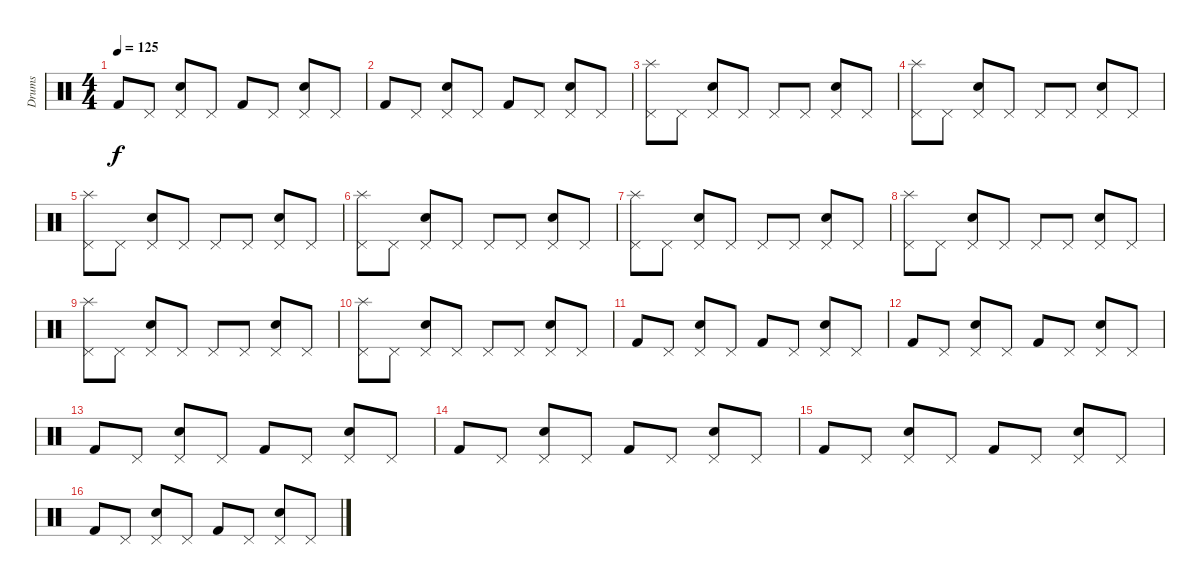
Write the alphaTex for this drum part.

\track ("Drums" "Drums") {instrument percussion}
\staff {score}
\articulation defaults
\ts (4 4)
\tempo 125
\clef neutral
\ks c "Kick (hit) 2".8{dy f} "Pedal Hi-Hat (hit)".8
("Pedal Hi-Hat (hit)" "Electric Snare (hit)").8 "Pedal Hi-Hat (hit)".8 "Kick (hit) 2".8 "Pedal Hi-Hat (hit)".8 ("Pedal Hi-Hat (hit)" "Electric Snare (hit)").8 "Pedal Hi-Hat (hit)".8 |
"Kick (hit) 2".8 "Pedal Hi-Hat (hit)".8 ("Pedal Hi-Hat (hit)" "Electric Snare (hit)").8 "Pedal Hi-Hat (hit)".8 "Kick (hit) 2".8 "Pedal Hi-Hat (hit)".8 ("Pedal Hi-Hat (hit)" "Electric Snare (hit)").8 "Pedal Hi-Hat (hit)".8 |
("Splash (hit)" "Pedal Hi-Hat (hit)").8 "Pedal Hi-Hat (hit)".8 ("Pedal Hi-Hat (hit)" "Electric Snare (hit)").8 "Pedal Hi-Hat (hit)".8 "Pedal Hi-Hat (hit)".8 "Pedal Hi-Hat (hit)".8 ("Pedal Hi-Hat (hit)" "Electric Snare (hit)").8 "Pedal Hi-Hat (hit)".8 |
("Splash (hit)" "Pedal Hi-Hat (hit)").8 "Pedal Hi-Hat (hit)".8 ("Pedal Hi-Hat (hit)" "Electric Snare (hit)").8 "Pedal Hi-Hat (hit)".8 "Pedal Hi-Hat (hit)".8 "Pedal Hi-Hat (hit)".8 ("Pedal Hi-Hat (hit)" "Electric Snare (hit)").8 "Pedal Hi-Hat (hit)".8 |
("Splash (hit)" "Pedal Hi-Hat (hit)").8 "Pedal Hi-Hat (hit)".8 ("Pedal Hi-Hat (hit)" "Electric Snare (hit)").8 "Pedal Hi-Hat (hit)".8 "Pedal Hi-Hat (hit)".8 "Pedal Hi-Hat (hit)".8 ("Pedal Hi-Hat (hit)" "Electric Snare (hit)").8 "Pedal Hi-Hat (hit)".8 |
("Splash (hit)" "Pedal Hi-Hat (hit)").8 "Pedal Hi-Hat (hit)".8 ("Pedal Hi-Hat (hit)" "Electric Snare (hit)").8 "Pedal Hi-Hat (hit)".8 "Pedal Hi-Hat (hit)".8 "Pedal Hi-Hat (hit)".8 ("Pedal Hi-Hat (hit)" "Electric Snare (hit)").8 "Pedal Hi-Hat (hit)".8 |
("Splash (hit)" "Pedal Hi-Hat (hit)").8 "Pedal Hi-Hat (hit)".8 ("Pedal Hi-Hat (hit)" "Electric Snare (hit)").8 "Pedal Hi-Hat (hit)".8 "Pedal Hi-Hat (hit)".8 "Pedal Hi-Hat (hit)".8 ("Pedal Hi-Hat (hit)" "Electric Snare (hit)").8 "Pedal Hi-Hat (hit)".8 |
("Splash (hit)" "Pedal Hi-Hat (hit)").8 "Pedal Hi-Hat (hit)".8 ("Pedal Hi-Hat (hit)" "Electric Snare (hit)").8 "Pedal Hi-Hat (hit)".8 "Pedal Hi-Hat (hit)".8 "Pedal Hi-Hat (hit)".8 ("Pedal Hi-Hat (hit)" "Electric Snare (hit)").8 "Pedal Hi-Hat (hit)".8 |
("Splash (hit)" "Pedal Hi-Hat (hit)").8 "Pedal Hi-Hat (hit)".8 ("Pedal Hi-Hat (hit)" "Electric Snare (hit)").8 "Pedal Hi-Hat (hit)".8 "Pedal Hi-Hat (hit)".8 "Pedal Hi-Hat (hit)".8 ("Pedal Hi-Hat (hit)" "Electric Snare (hit)").8 "Pedal Hi-Hat (hit)".8 |
("Splash (hit)" "Pedal Hi-Hat (hit)").8 "Pedal Hi-Hat (hit)".8 ("Pedal Hi-Hat (hit)" "Electric Snare (hit)").8 "Pedal Hi-Hat (hit)".8 "Pedal Hi-Hat (hit)".8 "Pedal Hi-Hat (hit)".8 ("Pedal Hi-Hat (hit)" "Electric Snare (hit)").8 "Pedal Hi-Hat (hit)".8 |
"Kick (hit) 2".8 "Pedal Hi-Hat (hit)".8 ("Pedal Hi-Hat (hit)" "Electric Snare (hit)").8 "Pedal Hi-Hat (hit)".8 "Kick (hit) 2".8 "Pedal Hi-Hat (hit)".8 ("Pedal Hi-Hat (hit)" "Electric Snare (hit)").8 "Pedal Hi-Hat (hit)".8 |
"Kick (hit) 2".8 "Pedal Hi-Hat (hit)".8 ("Pedal Hi-Hat (hit)" "Electric Snare (hit)").8 "Pedal Hi-Hat (hit)".8 "Kick (hit) 2".8 "Pedal Hi-Hat (hit)".8 ("Pedal Hi-Hat (hit)" "Electric Snare (hit)").8 "Pedal Hi-Hat (hit)".8 |
"Kick (hit) 2".8 "Pedal Hi-Hat (hit)".8 ("Pedal Hi-Hat (hit)" "Electric Snare (hit)").8 "Pedal Hi-Hat (hit)".8 "Kick (hit) 2".8 "Pedal Hi-Hat (hit)".8 ("Pedal Hi-Hat (hit)" "Electric Snare (hit)").8 "Pedal Hi-Hat (hit)".8 |
"Kick (hit) 2".8 "Pedal Hi-Hat (hit)".8 ("Pedal Hi-Hat (hit)" "Electric Snare (hit)").8 "Pedal Hi-Hat (hit)".8 "Kick (hit) 2".8 "Pedal Hi-Hat (hit)".8 ("Pedal Hi-Hat (hit)" "Electric Snare (hit)").8 "Pedal Hi-Hat (hit)".8 |
"Kick (hit) 2".8 "Pedal Hi-Hat (hit)".8 ("Pedal Hi-Hat (hit)" "Electric Snare (hit)").8 "Pedal Hi-Hat (hit)".8 "Kick (hit) 2".8 "Pedal Hi-Hat (hit)".8 ("Pedal Hi-Hat (hit)" "Electric Snare (hit)").8 "Pedal Hi-Hat (hit)".8 |
"Kick (hit) 2".8 "Pedal Hi-Hat (hit)".8 ("Pedal Hi-Hat (hit)" "Electric Snare (hit)").8 "Pedal Hi-Hat (hit)".8 "Kick (hit) 2".8 "Pedal Hi-Hat (hit)".8 ("Pedal Hi-Hat (hit)" "Electric Snare (hit)").8 "Pedal Hi-Hat (hit)".8
